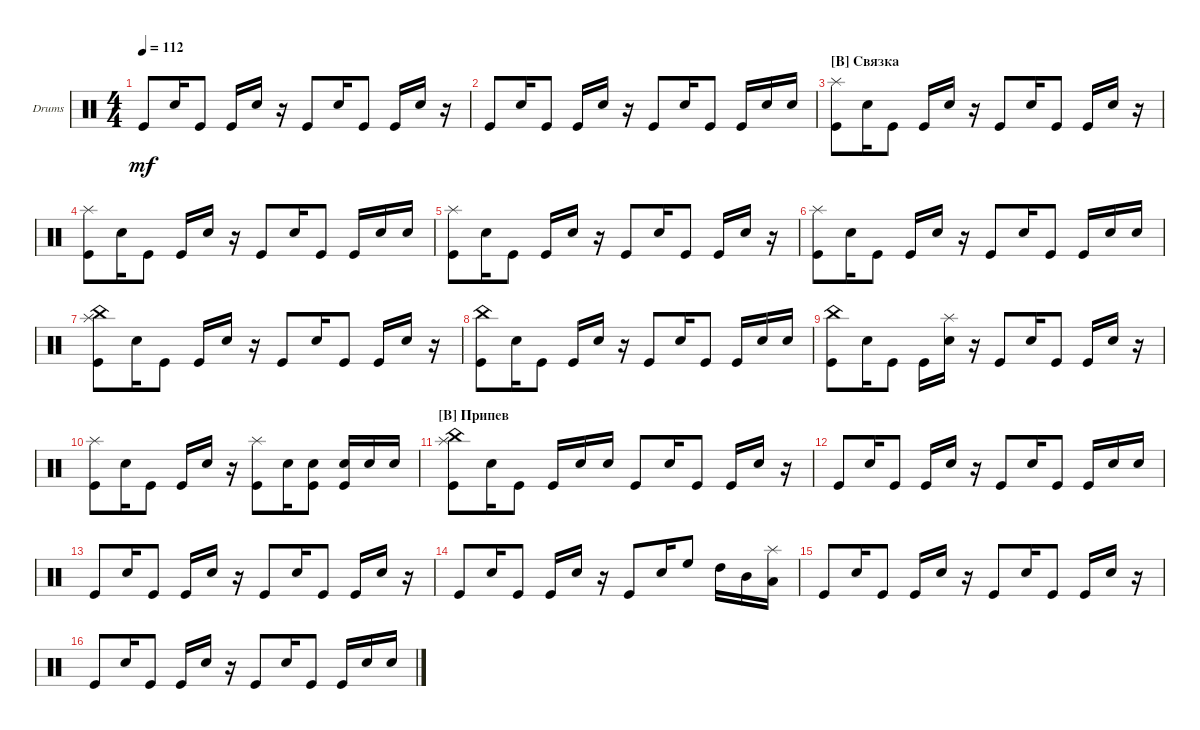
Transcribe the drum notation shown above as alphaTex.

\defaultSystemsLayout 4
\bracketExtendMode groupsimilarinstruments
\firstSystemTrackNameOrientation horizontal
\otherSystemsTrackNameOrientation horizontal
\track ("Drumkit" "Drums") {instrument percussion}
\staff {score}
\articulation defaults
\ts (4 4)
\tempo 112
\clef neutral
\ks c "Kick (hit)".8{dy mf} "Snare (hit) 2".16 "Kick (hit)".8 "Kick (hit)".16 "Snare (hit) 2".16
r.16 "Kick (hit)".8 "Snare (hit) 2".16 "Kick (hit)".8 "Kick (hit)".16 "Snare (hit) 2".16 r.16 |
"Kick (hit)".8 "Snare (hit) 2".16 "Kick (hit)".8 "Kick (hit)".16 "Snare (hit) 2".16 r.16 "Kick (hit)".8 "Snare (hit) 2".16 "Kick (hit)".8 "Kick (hit)".16 "Snare (hit) 2".16 "Snare (hit) 2".16 |
\section ("B" "Связка")
("Kick (hit)" "Splash (hit)").8 "Snare (hit) 2".16 "Kick (hit)".8 "Kick (hit)".16 "Snare (hit) 2".16 r.16 "Kick (hit)".8 "Snare (hit) 2".16 "Kick (hit)".8 "Kick (hit)".16 "Snare (hit) 2".16 r.16 |
("Kick (hit)" "Splash (hit)").8 "Snare (hit) 2".16 "Kick (hit)".8 "Kick (hit)".16 "Snare (hit) 2".16 r.16 "Kick (hit)".8 "Snare (hit) 2".16 "Kick (hit)".8 "Kick (hit)".16 "Snare (hit) 2".16 "Snare (hit) 2".16 |
("Kick (hit)" "Splash (hit)").8 "Snare (hit) 2".16 "Kick (hit)".8 "Kick (hit)".16 "Snare (hit) 2".16 r.16 "Kick (hit)".8 "Snare (hit) 2".16 "Kick (hit)".8 "Kick (hit)".16 "Snare (hit) 2".16 r.16 |
("Kick (hit)" "Splash (hit)").8 "Snare (hit) 2".16 "Kick (hit)".8 "Kick (hit)".16 "Snare (hit) 2".16 r.16 "Kick (hit)".8 "Snare (hit) 2".16 "Kick (hit)".8 "Kick (hit)".16 "Snare (hit) 2".16 "Snare (hit) 2".16 |
("Kick (hit)" "Splash (hit)" "China (hit)").8 "Snare (hit) 2".16 "Kick (hit)".8 "Kick (hit)".16 "Snare (hit) 2".16 r.16 "Kick (hit)".8 "Snare (hit) 2".16 "Kick (hit)".8 "Kick (hit)".16 "Snare (hit) 2".16 r.16 |
("Kick (hit)" "China (hit)").8 "Snare (hit) 2".16 "Kick (hit)".8 "Kick (hit)".16 "Snare (hit) 2".16 r.16 "Kick (hit)".8 "Snare (hit) 2".16 "Kick (hit)".8 "Kick (hit)".16 "Snare (hit) 2".16 "Snare (hit) 2".16 |
("Kick (hit)" "China (hit)").8 "Snare (hit) 2".16 "Kick (hit)".8 "Kick (hit)".16 ("Snare (hit) 2" "Splash (hit)").16 r.16 "Kick (hit)".8 "Snare (hit) 2".16 "Kick (hit)".8 "Kick (hit)".16 "Snare (hit) 2".16 r.16 |
("Kick (hit)" "Splash (hit)").8 "Snare (hit) 2".16 "Kick (hit)".8 "Kick (hit)".16 "Snare (hit) 2".16 r.16 ("Kick (hit)" "Splash (hit)").8 "Snare (hit) 2".16 ("Kick (hit)" "Snare (hit) 2").8 ("Kick (hit)" "Snare (hit) 2").16 "Snare (hit) 2".16 "Snare (hit) 2".16 |
\section ("B" "Припев")
("Kick (hit)" "Splash (hit)" "China (hit)").8 "Snare (hit) 2".16 "Kick (hit)".8 "Kick (hit)".16 "Snare (hit) 2".16 "Snare (hit) 2".16 "Kick (hit)".8 "Snare (hit) 2".16 "Kick (hit)".8 "Kick (hit)".16 "Snare (hit) 2".16 r.16 |
"Kick (hit)".8 "Snare (hit) 2".16 "Kick (hit)".8 "Kick (hit)".16 "Snare (hit) 2".16 r.16 "Kick (hit)".8 "Snare (hit) 2".16 "Kick (hit)".8 "Kick (hit)".16 "Snare (hit) 2".16 "Snare (hit) 2".16 |
"Kick (hit)".8 "Snare (hit) 2".16 "Kick (hit)".8 "Kick (hit)".16 "Snare (hit) 2".16 r.16 "Kick (hit)".8 "Snare (hit) 2".16 "Kick (hit)".8 "Kick (hit)".16 "Snare (hit) 2".16 r.16 |
"Kick (hit)".8 "Snare (hit) 2".16 "Kick (hit)".8 "Kick (hit)".16 "Snare (hit) 2".16 r.16 "Kick (hit)".8 "Snare (hit) 2".16 "High Floor Tom (hit)".8 "High Tom (hit)".16 "Mid Tom (hit)".16 ("Low Tom (hit)" "Splash (hit)").16 |
"Kick (hit)".8 "Snare (hit) 2".16 "Kick (hit)".8 "Kick (hit)".16 "Snare (hit) 2".16 r.16 "Kick (hit)".8 "Snare (hit) 2".16 "Kick (hit)".8 "Kick (hit)".16 "Snare (hit) 2".16 r.16 |
"Kick (hit)".8 "Snare (hit) 2".16 "Kick (hit)".8 "Kick (hit)".16 "Snare (hit) 2".16 r.16 "Kick (hit)".8 "Snare (hit) 2".16 "Kick (hit)".8 "Kick (hit)".16 "Snare (hit) 2".16 "Snare (hit) 2".16
